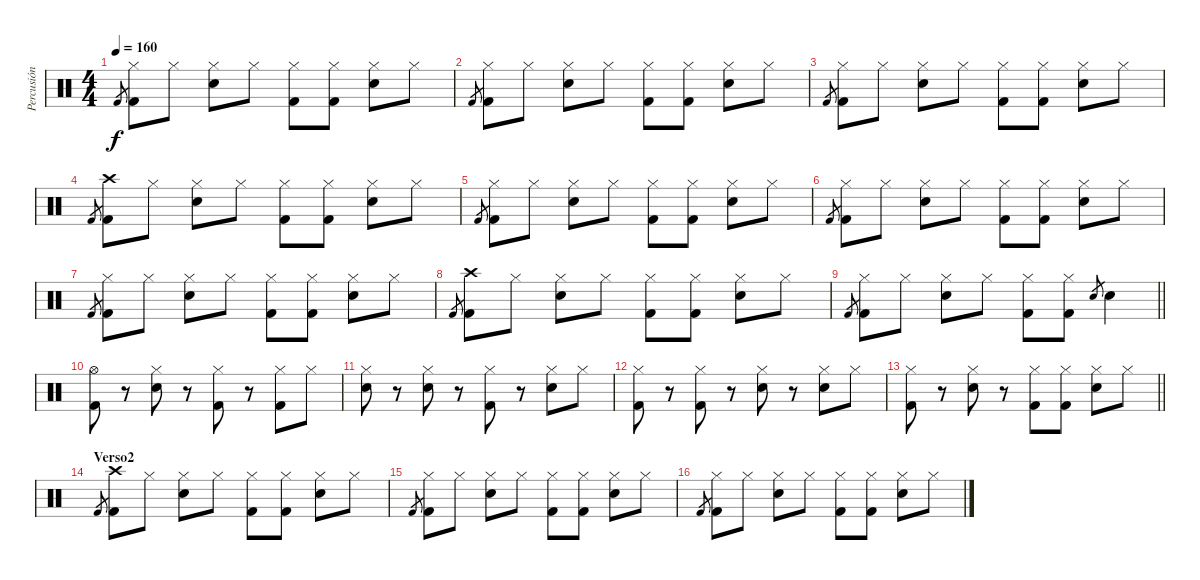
\track ("Percusión" "Percusión") {instrument percussion}
\staff {score}
\articulation defaults
\ts (4 4)
\tempo 160
\clef neutral
\ks c "Kick (hit) 2".8{gr dy f}
("Hi-Hat (closed)" "Kick (hit) 2").8 "Hi-Hat (closed)".8 ("Hi-Hat (closed)" "Snare (hit) 2").8 "Hi-Hat (closed)".8 ("Hi-Hat (closed)" "Kick (hit) 2").8 ("Hi-Hat (closed)" "Kick (hit) 2").8 ("Hi-Hat (closed)" "Snare (hit) 2").8 "Hi-Hat (closed)".8 |
"Kick (hit) 2".8{gr} ("Hi-Hat (closed)" "Kick (hit) 2").8 "Hi-Hat (closed)".8 ("Hi-Hat (closed)" "Snare (hit) 2").8 "Hi-Hat (closed)".8 ("Hi-Hat (closed)" "Kick (hit) 2").8 ("Hi-Hat (closed)" "Kick (hit) 2").8 ("Hi-Hat (closed)" "Snare (hit) 2").8 "Hi-Hat (closed)".8 |
"Kick (hit) 2".8{gr} ("Hi-Hat (closed)" "Kick (hit) 2").8 "Hi-Hat (closed)".8 ("Hi-Hat (closed)" "Snare (hit) 2").8 "Hi-Hat (closed)".8 ("Hi-Hat (closed)" "Kick (hit) 2").8 ("Hi-Hat (closed)" "Kick (hit) 2").8 ("Hi-Hat (closed)" "Snare (hit) 2").8 "Hi-Hat (closed)".8 |
"Kick (hit) 2".8{gr} ("Crash high (hit)" "Kick (hit) 2").8 "Hi-Hat (closed)".8 ("Hi-Hat (closed)" "Snare (hit) 2").8 "Hi-Hat (closed)".8 ("Hi-Hat (closed)" "Kick (hit) 2").8 ("Hi-Hat (closed)" "Kick (hit) 2").8 ("Hi-Hat (closed)" "Snare (hit) 2").8 "Hi-Hat (closed)".8 |
"Kick (hit) 2".8{gr} ("Hi-Hat (closed)" "Kick (hit) 2").8 "Hi-Hat (closed)".8 ("Hi-Hat (closed)" "Snare (hit) 2").8 "Hi-Hat (closed)".8 ("Hi-Hat (closed)" "Kick (hit) 2").8 ("Hi-Hat (closed)" "Kick (hit) 2").8 ("Hi-Hat (closed)" "Snare (hit) 2").8 "Hi-Hat (closed)".8 |
"Kick (hit) 2".8{gr} ("Hi-Hat (closed)" "Kick (hit) 2").8 "Hi-Hat (closed)".8 ("Hi-Hat (closed)" "Snare (hit) 2").8 "Hi-Hat (closed)".8 ("Hi-Hat (closed)" "Kick (hit) 2").8 ("Hi-Hat (closed)" "Kick (hit) 2").8 ("Hi-Hat (closed)" "Snare (hit) 2").8 "Hi-Hat (closed)".8 |
"Kick (hit) 2".8{gr} ("Hi-Hat (closed)" "Kick (hit) 2").8 "Hi-Hat (closed)".8 ("Hi-Hat (closed)" "Snare (hit) 2").8 "Hi-Hat (closed)".8 ("Hi-Hat (closed)" "Kick (hit) 2").8 ("Hi-Hat (closed)" "Kick (hit) 2").8 ("Hi-Hat (closed)" "Snare (hit) 2").8 "Hi-Hat (closed)".8 |
"Kick (hit) 2".8{gr} ("Crash high (hit)" "Kick (hit) 2").8 "Hi-Hat (closed)".8 ("Hi-Hat (closed)" "Snare (hit) 2").8 "Hi-Hat (closed)".8 ("Hi-Hat (closed)" "Kick (hit) 2").8 ("Hi-Hat (closed)" "Kick (hit) 2").8 ("Hi-Hat (closed)" "Snare (hit) 2").8 "Hi-Hat (closed)".8 |
\barLineRight lightlight "Kick (hit) 2".8{gr}
("Hi-Hat (closed)" "Kick (hit) 2").8 "Hi-Hat (closed)".8 ("Hi-Hat (closed)" "Snare (hit) 2").8 "Hi-Hat (closed)".8 ("Hi-Hat (closed)" "Kick (hit) 2").8 ("Hi-Hat (closed)" "Kick (hit) 2").8 "Snare (hit) 2".8{gr} "Snare (hit) 2".4 |
("Hi-Hat (open)" "Kick (hit) 2").8 r.8 ("Hi-Hat (closed)" "Snare (hit) 2").8 r.8 ("Hi-Hat (closed)" "Kick (hit) 2").8 r.8 ("Hi-Hat (closed)" "Kick (hit) 2").8 "Hi-Hat (closed)".8 |
("Hi-Hat (closed)" "Snare (hit) 2").8 r.8 ("Hi-Hat (closed)" "Snare (hit) 2").8 r.8 ("Hi-Hat (closed)" "Kick (hit) 2").8 r.8 ("Hi-Hat (closed)" "Snare (hit) 2").8 "Hi-Hat (closed)".8 |
("Hi-Hat (closed)" "Kick (hit) 2").8 r.8 ("Hi-Hat (closed)" "Kick (hit) 2").8 r.8 ("Hi-Hat (closed)" "Snare (hit) 2").8 r.8 ("Hi-Hat (closed)" "Snare (hit) 2").8 "Hi-Hat (closed)".8 |
\barLineRight lightlight
("Hi-Hat (closed)" "Kick (hit) 2").8 r.8 ("Hi-Hat (closed)" "Snare (hit) 2").8 r.8 ("Hi-Hat (closed)" "Kick (hit) 2").8 ("Hi-Hat (closed)" "Kick (hit) 2").8 ("Hi-Hat (closed)" "Snare (hit) 2").8 "Hi-Hat (closed)".8 |
\section ("" "Verso2")
"Kick (hit) 2".8{gr} ("Crash high (hit)" "Kick (hit) 2").8 "Hi-Hat (closed)".8 ("Hi-Hat (closed)" "Snare (hit) 2").8 "Hi-Hat (closed)".8 ("Hi-Hat (closed)" "Kick (hit) 2").8 ("Hi-Hat (closed)" "Kick (hit) 2").8 ("Hi-Hat (closed)" "Snare (hit) 2").8 "Hi-Hat (closed)".8 |
"Kick (hit) 2".8{gr} ("Hi-Hat (closed)" "Kick (hit) 2").8 "Hi-Hat (closed)".8 ("Hi-Hat (closed)" "Snare (hit) 2").8 "Hi-Hat (closed)".8 ("Hi-Hat (closed)" "Kick (hit) 2").8 ("Hi-Hat (closed)" "Kick (hit) 2").8 ("Hi-Hat (closed)" "Snare (hit) 2").8 "Hi-Hat (closed)".8 |
"Kick (hit) 2".8{gr} ("Hi-Hat (closed)" "Kick (hit) 2").8 "Hi-Hat (closed)".8 ("Hi-Hat (closed)" "Snare (hit) 2").8 "Hi-Hat (closed)".8 ("Hi-Hat (closed)" "Kick (hit) 2").8 ("Hi-Hat (closed)" "Kick (hit) 2").8 ("Hi-Hat (closed)" "Snare (hit) 2").8 "Hi-Hat (closed)".8
